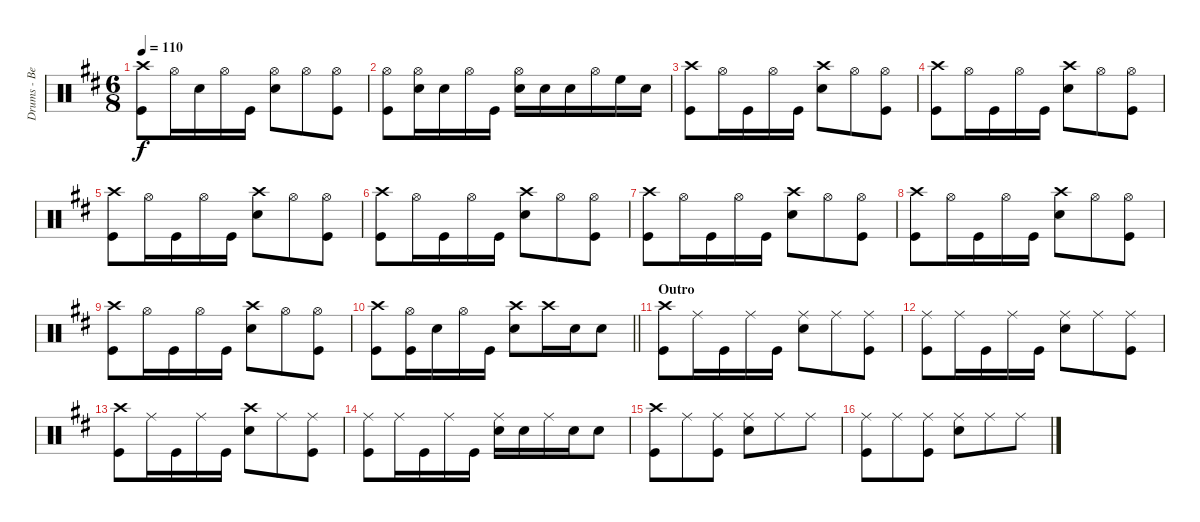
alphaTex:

\track ("Drums - Ben Johnston" "Drums - Be") {instrument percussion}
\staff {score}
\articulation defaults
\ts (6 8)
\tempo 110
\clef neutral
\ks d
("Crash high (hit)" "Kick (hit)").8{dy f} "Hi-Hat (open)".16 "Snare (hit) 2".16 "Hi-Hat (open)".16 "Kick (hit)".16 ("Hi-Hat (open)" "Snare (hit) 2").8 "Hi-Hat (open)".8 ("Hi-Hat (open)" "Kick (hit)").8 |
("Hi-Hat (open)" "Kick (hit)").8 ("Hi-Hat (open)" "Snare (hit) 2").16 "Snare (hit) 2".16 "Hi-Hat (open)".16 "Kick (hit)".16 ("Hi-Hat (open)" "Snare (hit) 2").16 "Snare (hit) 2".16 "Snare (hit) 2".16 "Hi-Hat (open)".16 "High Floor Tom (hit)".16 "Snare (hit) 2".16 |
("Crash high (hit)" "Kick (hit)").8 "Hi-Hat (open)".16 "Kick (hit)".16 "Hi-Hat (open)".16 "Kick (hit)".16 ("Crash high (hit)" "Snare (hit) 2").8 "Hi-Hat (open)".8 ("Hi-Hat (open)" "Kick (hit)").8 |
("Crash high (hit)" "Kick (hit)").8 "Hi-Hat (open)".16 "Kick (hit)".16 "Hi-Hat (open)".16 "Kick (hit)".16 ("Crash high (hit)" "Snare (hit) 2").8 "Hi-Hat (open)".8 ("Hi-Hat (open)" "Kick (hit)").8 |
("Crash high (hit)" "Kick (hit)").8 "Hi-Hat (open)".16 "Kick (hit)".16 "Hi-Hat (open)".16 "Kick (hit)".16 ("Crash high (hit)" "Snare (hit) 2").8 "Hi-Hat (open)".8 ("Hi-Hat (open)" "Kick (hit)").8 |
("Crash high (hit)" "Kick (hit)").8 "Hi-Hat (open)".16 "Kick (hit)".16 "Hi-Hat (open)".16 "Kick (hit)".16 ("Crash high (hit)" "Snare (hit) 2").8 "Hi-Hat (open)".8 ("Hi-Hat (open)" "Kick (hit)").8 |
("Crash high (hit)" "Kick (hit)").8 "Hi-Hat (open)".16 "Kick (hit)".16 "Hi-Hat (open)".16 "Kick (hit)".16 ("Crash high (hit)" "Snare (hit) 2").8 "Hi-Hat (open)".8 ("Hi-Hat (open)" "Kick (hit)").8 |
("Crash high (hit)" "Kick (hit)").8 "Hi-Hat (open)".16 "Kick (hit)".16 "Hi-Hat (open)".16 "Kick (hit)".16 ("Crash high (hit)" "Snare (hit) 2").8 "Hi-Hat (open)".8 ("Hi-Hat (open)" "Kick (hit)").8 |
("Crash high (hit)" "Kick (hit)").8 "Hi-Hat (open)".16 "Kick (hit)".16 "Hi-Hat (open)".16 "Kick (hit)".16 ("Crash high (hit)" "Snare (hit) 2").8 "Hi-Hat (open)".8 ("Hi-Hat (open)" "Kick (hit)").8 |
\barLineRight lightlight
("Crash high (hit)" "Kick (hit)").8 ("Hi-Hat (open)" "Kick (hit)").16 "Snare (hit) 2".16 "Hi-Hat (open)".16 "Kick (hit)".16 ("Crash high (hit)" "Snare (hit) 2").8 "Crash high (hit)".16 "Snare (hit) 2".16 "Snare (hit) 2".8 |
\section ("" "Outro")
("Crash high (hit)" "Kick (hit)").8 "Ride (middle)".16 "Kick (hit)".16 "Ride (middle)".16 "Kick (hit)".16 ("Ride (middle)" "Snare (hit) 2").8 "Ride (middle)".8 ("Ride (middle)" "Kick (hit)").8 |
("Ride (middle)" "Kick (hit)").8 "Ride (middle)".16 "Kick (hit)".16 "Ride (middle)".16 "Kick (hit)".16 ("Ride (middle)" "Snare (hit) 2").8 "Ride (middle)".8 ("Ride (middle)" "Kick (hit)").8 |
("Crash high (hit)" "Kick (hit)").8 "Ride (middle)".16 "Kick (hit)".16 "Ride (middle)".16 "Kick (hit)".16 ("Crash high (hit)" "Snare (hit) 2").8 "Ride (middle)".8 ("Ride (middle)" "Kick (hit)").8 |
("Ride (middle)" "Kick (hit)").8 "Ride (middle)".16 "Kick (hit)".16 "Ride (middle)".16 "Kick (hit)".16 ("Ride (middle)" "Snare (hit) 2").16 "Snare (hit) 2".16 "Ride (middle)".16 "Snare (hit) 2".16 "Snare (hit) 2".8 |
("Crash high (hit)" "Kick (hit)").8 "Ride (middle)".8 ("Ride (middle)" "Kick (hit)").8 ("Ride (middle)" "Snare (hit) 2").8 "Ride (middle)".8 "Ride (middle)".8 |
("Ride (middle)" "Kick (hit)").8 "Ride (middle)".8 ("Ride (middle)" "Kick (hit)").8 ("Ride (middle)" "Snare (hit) 2").8 "Ride (middle)".8 "Ride (middle)".8
